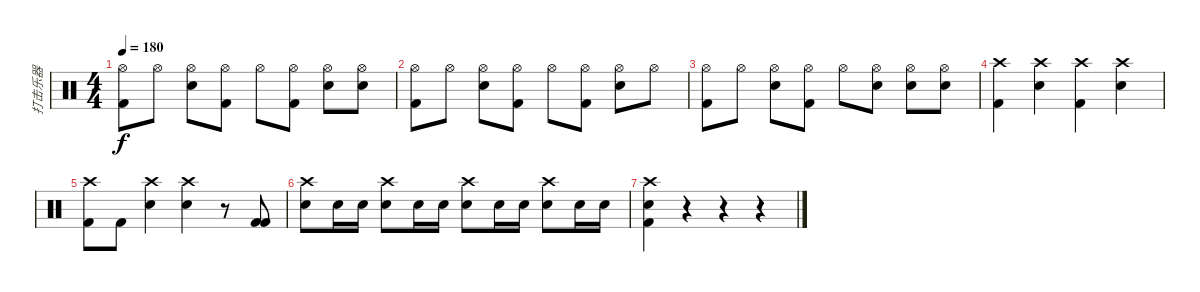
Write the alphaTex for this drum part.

\track ("打击乐器" "打击乐器") {instrument percussion}
\staff {score}
\articulation defaults
\ts (4 4)
\tempo 180
\clef neutral
\ks c
("Hi-Hat (open)" "Kick (hit) 2").8{dy f} "Hi-Hat (open)".8 ("Hi-Hat (open)" "Snare (hit) 2").8 ("Hi-Hat (open)" "Kick (hit) 2").8 "Hi-Hat (open)".8 ("Hi-Hat (open)" "Kick (hit) 2").8 ("Hi-Hat (open)" "Snare (hit) 2").8 ("Hi-Hat (open)" "Snare (hit) 2").8 |
("Hi-Hat (open)" "Kick (hit) 2").8 "Hi-Hat (open)".8 ("Hi-Hat (open)" "Snare (hit) 2").8 ("Hi-Hat (open)" "Kick (hit) 2").8 "Hi-Hat (open)".8 ("Hi-Hat (open)" "Kick (hit) 2").8 ("Hi-Hat (open)" "Snare (hit) 2").8 "Hi-Hat (open)".8 |
("Hi-Hat (open)" "Kick (hit) 2").8 "Hi-Hat (open)".8 ("Hi-Hat (open)" "Snare (hit) 2").8 ("Hi-Hat (open)" "Kick (hit) 2").8 "Hi-Hat (open)".8 ("Hi-Hat (open)" "Snare (hit) 2").8 ("Hi-Hat (open)" "Snare (hit) 2").8 ("Hi-Hat (open)" "Snare (hit) 2").8 |
("Crash high (hit)" "Kick (hit) 2").4 ("Crash high (hit)" "Snare (hit) 2").4 ("Crash high (hit)" "Kick (hit) 2").4 ("Crash high (hit)" "Snare (hit) 2").4 |
("Crash high (hit)" "Kick (hit) 2").8 "Kick (hit) 2".8 ("Crash high (hit)" "Snare (hit) 2").4 ("Crash high (hit)" "Snare (hit) 2").4 r.8 ("Kick (hit) 2" "Kick (hit) 2").8 |
("Crash high (hit)" "Snare (hit) 2").8 "Snare (hit) 2".16 "Snare (hit) 2".16 ("Crash high (hit)" "Snare (hit) 2").8 "Snare (hit) 2".16 "Snare (hit) 2".16 ("Crash high (hit)" "Snare (hit) 2").8 "Snare (hit) 2".16 "Snare (hit) 2".16 ("Crash high (hit)" "Snare (hit) 2").8 "Snare (hit) 2".16 "Snare (hit) 2".16 |
("Crash high (hit)" "Kick (hit) 2" "Snare (hit) 2").4 r.4 r.4 r.4
